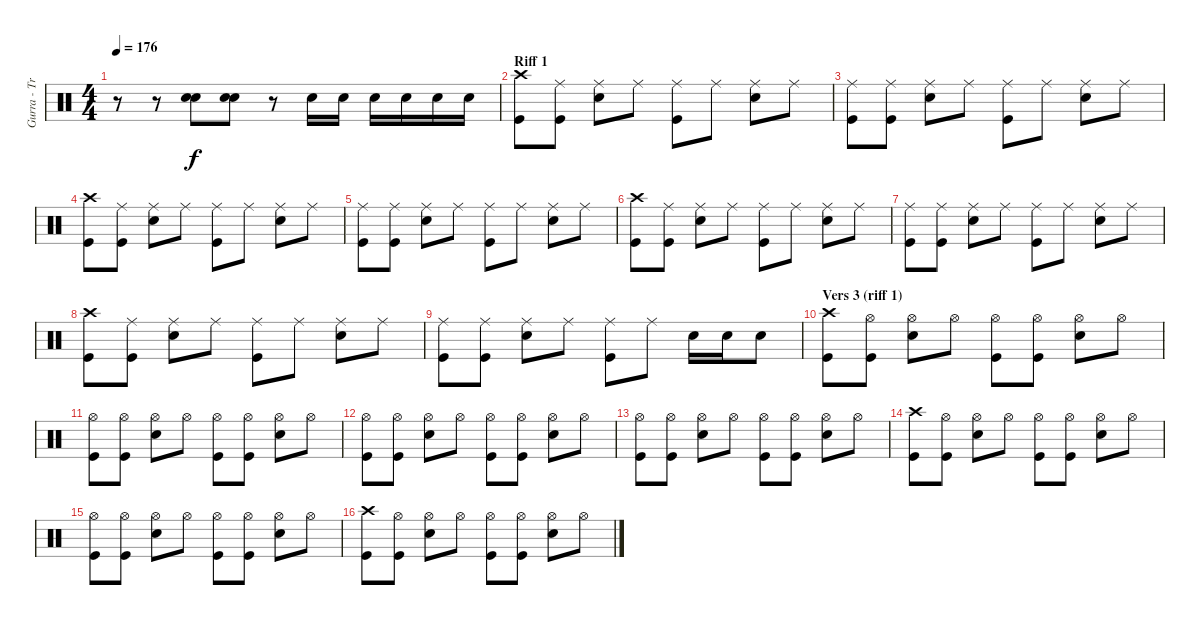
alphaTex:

\track ("Gurra - Trummor" "Gurra - Tr") {instrument percussion}
\staff {score}
\articulation defaults
\ts (4 4)
\tempo 176
\clef neutral
\ks c
r.8{dy f} r.8 ("Electric Snare (hit)" "Electric Snare (hit)").8 ("Electric Snare (hit)" "Electric Snare (hit)").8 r.8 "Electric Snare (hit)".16 "Electric Snare (hit)".16 "Electric Snare (hit)".16 "Electric Snare (hit)".16 "Electric Snare (hit)".16 "Electric Snare (hit)".16 |
\section ("" "Riff 1")
("Crash high (hit)" "Kick (hit)").8 ("Ride (middle)" "Kick (hit)").8 ("Ride (middle)" "Electric Snare (hit)").8 "Ride (middle)".8 ("Ride (middle)" "Kick (hit)").8 "Ride (middle)".8 ("Ride (middle)" "Electric Snare (hit)").8 "Ride (middle)".8 |
("Ride (middle)" "Kick (hit)").8 ("Ride (middle)" "Kick (hit)").8 ("Ride (middle)" "Electric Snare (hit)").8 "Ride (middle)".8 ("Ride (middle)" "Kick (hit)").8 "Ride (middle)".8 ("Ride (middle)" "Electric Snare (hit)").8 "Ride (middle)".8 |
("Crash high (hit)" "Kick (hit)").8 ("Ride (middle)" "Kick (hit)").8 ("Ride (middle)" "Electric Snare (hit)").8 "Ride (middle)".8 ("Ride (middle)" "Kick (hit)").8 "Ride (middle)".8 ("Ride (middle)" "Electric Snare (hit)").8 "Ride (middle)".8 |
("Ride (middle)" "Kick (hit)").8 ("Ride (middle)" "Kick (hit)").8 ("Ride (middle)" "Electric Snare (hit)").8 "Ride (middle)".8 ("Ride (middle)" "Kick (hit)").8 "Ride (middle)".8 ("Ride (middle)" "Electric Snare (hit)").8 "Ride (middle)".8 |
("Crash high (hit)" "Kick (hit)").8 ("Ride (middle)" "Kick (hit)").8 ("Ride (middle)" "Electric Snare (hit)").8 "Ride (middle)".8 ("Ride (middle)" "Kick (hit)").8 "Ride (middle)".8 ("Ride (middle)" "Electric Snare (hit)").8 "Ride (middle)".8 |
("Ride (middle)" "Kick (hit)").8 ("Ride (middle)" "Kick (hit)").8 ("Ride (middle)" "Electric Snare (hit)").8 "Ride (middle)".8 ("Ride (middle)" "Kick (hit)").8 "Ride (middle)".8 ("Ride (middle)" "Electric Snare (hit)").8 "Ride (middle)".8 |
("Crash high (hit)" "Kick (hit)").8 ("Ride (middle)" "Kick (hit)").8 ("Ride (middle)" "Electric Snare (hit)").8 "Ride (middle)".8 ("Ride (middle)" "Kick (hit)").8 "Ride (middle)".8 ("Ride (middle)" "Electric Snare (hit)").8 "Ride (middle)".8 |
("Ride (middle)" "Kick (hit)").8 ("Ride (middle)" "Kick (hit)").8 ("Ride (middle)" "Electric Snare (hit)").8 "Ride (middle)".8 ("Ride (middle)" "Kick (hit)").8 "Ride (middle)".8 "Electric Snare (hit)".16 "Electric Snare (hit)".16 "Electric Snare (hit)".8 |
\section ("" "Vers 3 (riff 1)")
("Crash high (hit)" "Kick (hit)").8 ("Hi-Hat (open)" "Kick (hit)").8 ("Hi-Hat (open)" "Electric Snare (hit)").8 "Hi-Hat (open)".8 ("Hi-Hat (open)" "Kick (hit)").8 ("Hi-Hat (open)" "Kick (hit)").8 ("Hi-Hat (open)" "Electric Snare (hit)").8 "Hi-Hat (open)".8 |
("Hi-Hat (open)" "Kick (hit)").8 ("Hi-Hat (open)" "Kick (hit)").8 ("Hi-Hat (open)" "Electric Snare (hit)").8 "Hi-Hat (open)".8 ("Hi-Hat (open)" "Kick (hit)").8 ("Hi-Hat (open)" "Kick (hit)").8 ("Hi-Hat (open)" "Electric Snare (hit)").8 "Hi-Hat (open)".8 |
("Hi-Hat (open)" "Kick (hit)").8 ("Hi-Hat (open)" "Kick (hit)").8 ("Hi-Hat (open)" "Electric Snare (hit)").8 "Hi-Hat (open)".8 ("Hi-Hat (open)" "Kick (hit)").8 ("Hi-Hat (open)" "Kick (hit)").8 ("Hi-Hat (open)" "Electric Snare (hit)").8 "Hi-Hat (open)".8 |
("Hi-Hat (open)" "Kick (hit)").8 ("Hi-Hat (open)" "Kick (hit)").8 ("Hi-Hat (open)" "Electric Snare (hit)").8 "Hi-Hat (open)".8 ("Hi-Hat (open)" "Kick (hit)").8 ("Hi-Hat (open)" "Kick (hit)").8 ("Hi-Hat (open)" "Electric Snare (hit)").8 "Hi-Hat (open)".8 |
("Crash high (hit)" "Kick (hit)").8 ("Hi-Hat (open)" "Kick (hit)").8 ("Hi-Hat (open)" "Electric Snare (hit)").8 "Hi-Hat (open)".8 ("Hi-Hat (open)" "Kick (hit)").8 ("Hi-Hat (open)" "Kick (hit)").8 ("Hi-Hat (open)" "Electric Snare (hit)").8 "Hi-Hat (open)".8 |
("Hi-Hat (open)" "Kick (hit)").8 ("Hi-Hat (open)" "Kick (hit)").8 ("Hi-Hat (open)" "Electric Snare (hit)").8 "Hi-Hat (open)".8 ("Hi-Hat (open)" "Kick (hit)").8 ("Hi-Hat (open)" "Kick (hit)").8 ("Hi-Hat (open)" "Electric Snare (hit)").8 "Hi-Hat (open)".8 |
("Crash high (hit)" "Kick (hit)").8 ("Hi-Hat (open)" "Kick (hit)").8 ("Hi-Hat (open)" "Electric Snare (hit)").8 "Hi-Hat (open)".8 ("Hi-Hat (open)" "Kick (hit)").8 ("Hi-Hat (open)" "Kick (hit)").8 ("Hi-Hat (open)" "Electric Snare (hit)").8 "Hi-Hat (open)".8
